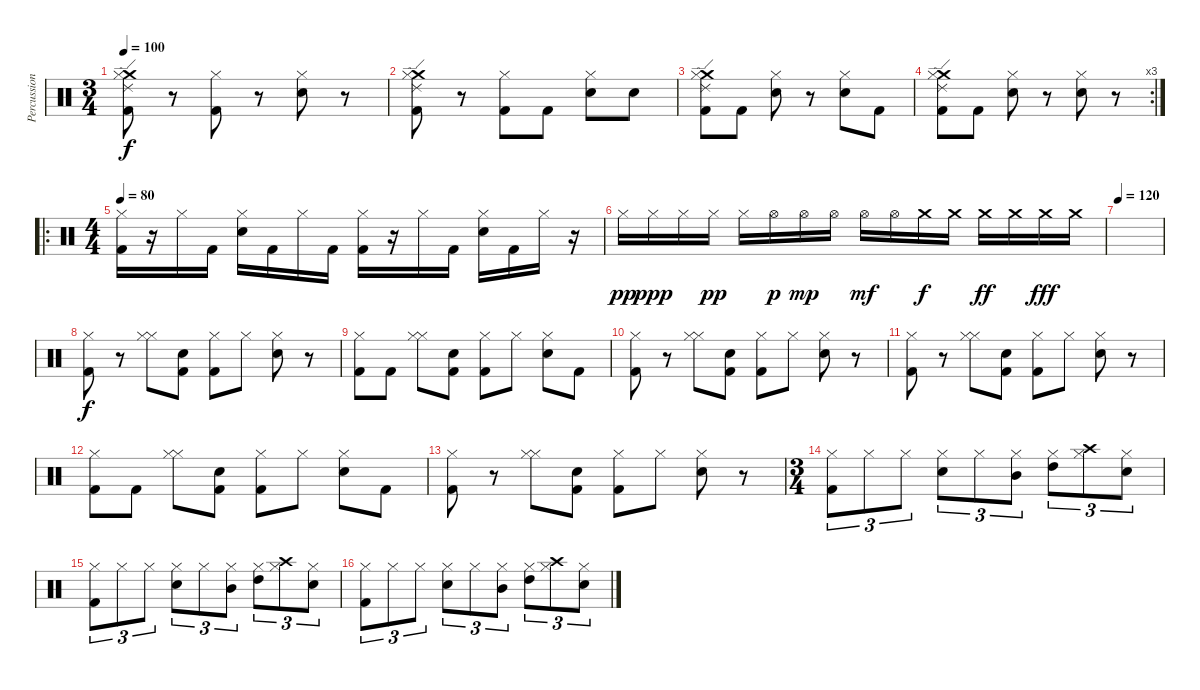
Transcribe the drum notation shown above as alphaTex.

\track ("Percussion" "Percussion") {instrument percussion}
\staff {score}
\articulation defaults
\ts (3 4)
\tempo 100
\clef neutral
\ks c
("Kick (hit) 2" "Ride (edge) 2" "Crash medium (hit)" "Hi-Hat (closed)").8{dy f} r.8 ("Kick (hit) 2" "Hi-Hat (closed)").8 r.8 ("Snare (hit) 2" "Hi-Hat (closed)").8 r.8 |
("Kick (hit) 2" "Ride (edge) 2" "Crash medium (hit)" "Hi-Hat (closed)").8 r.8 ("Kick (hit) 2" "Hi-Hat (closed)").8 "Kick (hit) 2".8 ("Snare (hit) 2" "Hi-Hat (closed)").8 "Snare (hit) 2".8 |
("Kick (hit) 2" "Ride (edge) 2" "Crash medium (hit)" "Hi-Hat (closed)").8 "Kick (hit) 2".8 ("Snare (hit) 2" "Hi-Hat (closed)").8 r.8 ("Snare (hit) 2" "Hi-Hat (closed)").8 "Kick (hit) 2".8 |
\rc 3
("Kick (hit) 2" "Ride (edge) 2" "Crash medium (hit)" "Hi-Hat (closed)").8 "Kick (hit) 2".8 ("Snare (hit) 2" "Hi-Hat (closed)").8 r.8 ("Snare (hit) 2" "Hi-Hat (closed)").8 r.8 |
\ro
\ts (4 4)
\tempo 80
("Kick (hit) 2" "Hi-Hat (closed)").16 r.16 "Hi-Hat (closed)".16 "Kick (hit) 2".16 ("Snare (hit) 2" "Hi-Hat (closed)").16 "Kick (hit) 2".16 "Hi-Hat (closed)".16 "Kick (hit) 2".16 ("Kick (hit) 2" "Hi-Hat (closed)").16 r.16 "Hi-Hat (closed)".16 "Kick (hit) 2".16 ("Snare (hit) 2" "Hi-Hat (closed)").16 "Kick (hit) 2".16 "Hi-Hat (closed)".16 r.16 |
"Hi-Hat (closed)".16{dy pp} "Hi-Hat (closed)".16{dy ppp} "Hi-Hat (closed)".16 "Hi-Hat (closed)".16{dy pp} "Hi-Hat (closed)".16 "Hi-Hat (open)".16{dy p} "Hi-Hat (open)".16{dy mp} "Hi-Hat (open)".16 "Hi-Hat (open)".16{dy mf} "Hi-Hat (open)".16 "Crash medium (hit)".16{dy f} "Crash medium (hit)".16 "Crash medium (hit)".16{dy ff} "Crash medium (hit)".16 "Crash medium (hit)".16{dy fff} "Crash medium (hit)".16 |
\tempo 120
|
("Kick (hit) 2" "Hi-Hat (closed)").8{dy f} r.8 ("Hi-Hat (closed)" "Hi-Hat (closed)").8 ("Snare (hit) 2" "Kick (hit) 2").8 ("Kick (hit) 2" "Hi-Hat (closed)").8 "Hi-Hat (closed)".8 ("Snare (hit) 2" "Hi-Hat (closed)").8 r.8 |
("Kick (hit) 2" "Hi-Hat (closed)").8 "Kick (hit) 2".8 ("Hi-Hat (closed)" "Hi-Hat (closed)").8 ("Snare (hit) 2" "Kick (hit) 2").8 ("Kick (hit) 2" "Hi-Hat (closed)").8 "Hi-Hat (closed)".8 ("Snare (hit) 2" "Hi-Hat (closed)").8 "Kick (hit) 2".8 |
("Kick (hit) 2" "Hi-Hat (closed)").8 r.8 ("Hi-Hat (closed)" "Hi-Hat (closed)").8 ("Snare (hit) 2" "Kick (hit) 2").8 ("Kick (hit) 2" "Hi-Hat (closed)").8 "Hi-Hat (closed)".8 ("Snare (hit) 2" "Hi-Hat (closed)").8 r.8 |
("Kick (hit) 2" "Hi-Hat (closed)").8 r.8 ("Hi-Hat (closed)" "Hi-Hat (closed)").8 ("Snare (hit) 2" "Kick (hit) 2").8 ("Kick (hit) 2" "Hi-Hat (closed)").8 "Hi-Hat (closed)".8 ("Snare (hit) 2" "Hi-Hat (closed)").8 r.8 |
("Kick (hit) 2" "Hi-Hat (closed)").8 "Kick (hit) 2".8 ("Hi-Hat (closed)" "Hi-Hat (closed)").8 ("Snare (hit) 2" "Kick (hit) 2").8 ("Kick (hit) 2" "Hi-Hat (closed)").8 "Hi-Hat (closed)".8 ("Snare (hit) 2" "Hi-Hat (closed)").8 "Kick (hit) 2".8 |
("Kick (hit) 2" "Hi-Hat (closed)").8 r.8 ("Hi-Hat (closed)" "Hi-Hat (closed)").8 ("Snare (hit) 2" "Kick (hit) 2").8 ("Kick (hit) 2" "Hi-Hat (closed)").8 "Hi-Hat (closed)".8 ("Snare (hit) 2" "Hi-Hat (closed)").8 r.8 |
\ts (3 4)
("Kick (hit) 2" "Hi-Hat (closed)").8{tu (3 2)} "Hi-Hat (closed)".8{tu (3 2)} "Hi-Hat (closed)".8{tu (3 2)} ("Snare (hit) 2" "Hi-Hat (closed)").8{tu (3 2)} "Hi-Hat (closed)".8{tu (3 2)} ("Mid Tom (hit)" "Hi-Hat (closed)").8{tu (3 2)} ("High Tom (hit)" "Hi-Hat (closed)").8{tu (3 2)} ("Crash high (hit)" "Hi-Hat (closed)").8{tu (3 2)} ("Snare (hit) 2" "Hi-Hat (closed)").8{tu (3 2)} |
("Kick (hit) 2" "Hi-Hat (closed)").8{tu (3 2)} "Hi-Hat (closed)".8{tu (3 2)} "Hi-Hat (closed)".8{tu (3 2)} ("Snare (hit) 2" "Hi-Hat (closed)").8{tu (3 2)} "Hi-Hat (closed)".8{tu (3 2)} ("Mid Tom (hit)" "Hi-Hat (closed)").8{tu (3 2)} ("High Tom (hit)" "Hi-Hat (closed)").8{tu (3 2)} ("Crash high (hit)" "Hi-Hat (closed)").8{tu (3 2)} ("Snare (hit) 2" "Hi-Hat (closed)").8{tu (3 2)} |
("Kick (hit) 2" "Hi-Hat (closed)").8{tu (3 2)} "Hi-Hat (closed)".8{tu (3 2)} "Hi-Hat (closed)".8{tu (3 2)} ("Snare (hit) 2" "Hi-Hat (closed)").8{tu (3 2)} "Hi-Hat (closed)".8{tu (3 2)} ("Mid Tom (hit)" "Hi-Hat (closed)").8{tu (3 2)} ("High Tom (hit)" "Hi-Hat (closed)").8{tu (3 2)} ("Crash high (hit)" "Hi-Hat (closed)").8{tu (3 2)} ("Snare (hit) 2" "Hi-Hat (closed)").8{tu (3 2)}
